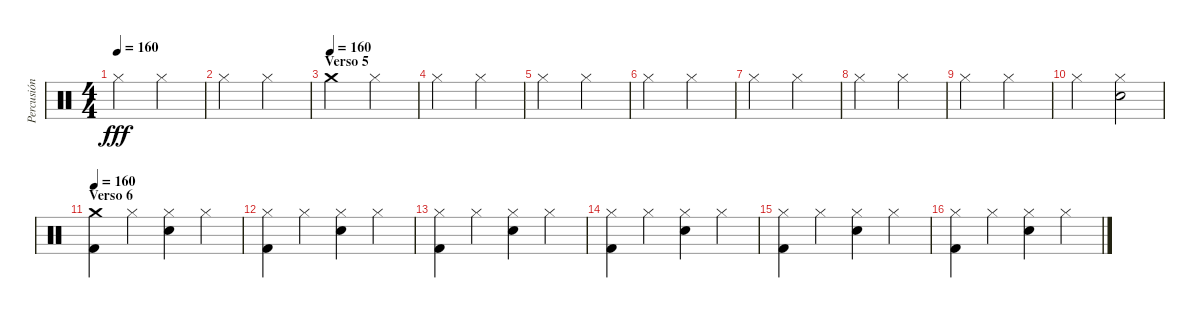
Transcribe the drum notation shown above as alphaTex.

\track ("Percusión" "Percusión") {instrument percussion}
\staff {score}
\articulation defaults
\ts (4 4)
\tempo 160
\clef neutral
\ks c "Hi-Hat (closed)".2{dy fff} "Hi-Hat (closed)".2
|
"Hi-Hat (closed)".2 "Hi-Hat (closed)".2 |
\section ("" "Verso 5")
\tempo (160)
"Crash medium (hit)".2 "Hi-Hat (closed)".2 |
"Hi-Hat (closed)".2 "Hi-Hat (closed)".2 |
"Hi-Hat (closed)".2 "Hi-Hat (closed)".2 |
"Hi-Hat (closed)".2 "Hi-Hat (closed)".2 |
"Hi-Hat (closed)".2 "Hi-Hat (closed)".2 |
"Hi-Hat (closed)".2 "Hi-Hat (closed)".2 |
"Hi-Hat (closed)".2 "Hi-Hat (closed)".2 |
"Hi-Hat (closed)".2 ("Hi-Hat (closed)" "Snare (hit) 2").2 |
\section ("" "Verso 6")
\tempo 160
("Crash medium (hit)" "Kick (hit) 2").4 "Hi-Hat (closed)".4 ("Hi-Hat (closed)" "Snare (hit) 2").4 "Hi-Hat (closed)".4 |
("Hi-Hat (closed)" "Kick (hit) 2").4 "Hi-Hat (closed)".4 ("Hi-Hat (closed)" "Snare (hit) 2").4 "Hi-Hat (closed)".4 |
("Hi-Hat (closed)" "Kick (hit) 2").4 "Hi-Hat (closed)".4 ("Hi-Hat (closed)" "Snare (hit) 2").4 "Hi-Hat (closed)".4 |
("Hi-Hat (closed)" "Kick (hit) 2").4 "Hi-Hat (closed)".4 ("Hi-Hat (closed)" "Snare (hit) 2").4 "Hi-Hat (closed)".4 |
("Hi-Hat (closed)" "Kick (hit) 2").4 "Hi-Hat (closed)".4 ("Hi-Hat (closed)" "Snare (hit) 2").4 "Hi-Hat (closed)".4 |
("Hi-Hat (closed)" "Kick (hit) 2").4 "Hi-Hat (closed)".4 ("Hi-Hat (closed)" "Snare (hit) 2").4 "Hi-Hat (closed)".4
